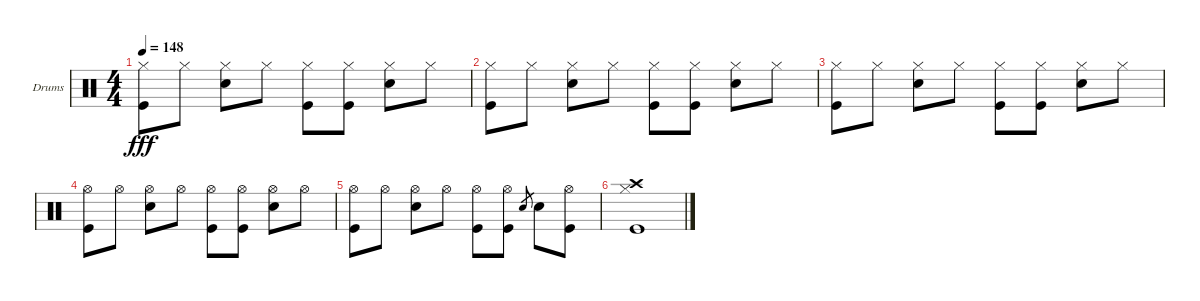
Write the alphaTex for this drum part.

\bracketExtendMode groupsimilarinstruments
\firstSystemTrackNameOrientation horizontal
\otherSystemsTrackNameOrientation horizontal
\track ("James Kottak" "Drums") {instrument percussion}
\staff {score}
\articulation defaults
\ts (4 4)
\tempo 148
\clef neutral
\ks c
("Hi-Hat (closed)" "Kick (hit)").8{dy fff} "Hi-Hat (closed)".8 ("Hi-Hat (closed)" "Snare (hit) 2").8 "Hi-Hat (closed)".8 ("Hi-Hat (closed)" "Kick (hit)").8 ("Hi-Hat (closed)" "Kick (hit)").8 ("Hi-Hat (closed)" "Snare (hit) 2").8 "Hi-Hat (closed)".8 |
("Hi-Hat (closed)" "Kick (hit)").8 "Hi-Hat (closed)".8 ("Hi-Hat (closed)" "Snare (hit) 2").8 "Hi-Hat (closed)".8 ("Hi-Hat (closed)" "Kick (hit)").8 ("Hi-Hat (closed)" "Kick (hit)").8 ("Hi-Hat (closed)" "Snare (hit) 2").8 "Hi-Hat (closed)".8 |
("Hi-Hat (closed)" "Kick (hit)").8 "Hi-Hat (closed)".8 ("Hi-Hat (closed)" "Snare (hit) 2").8 "Hi-Hat (closed)".8 ("Hi-Hat (closed)" "Kick (hit)").8 ("Hi-Hat (closed)" "Kick (hit)").8 ("Hi-Hat (closed)" "Snare (hit) 2").8 "Hi-Hat (closed)".8 |
("Hi-Hat (open)" "Kick (hit)").8 "Hi-Hat (open)".8 ("Hi-Hat (open)" "Snare (hit) 2").8 "Hi-Hat (open)".8 ("Hi-Hat (open)" "Kick (hit)").8 ("Hi-Hat (open)" "Kick (hit)").8 ("Hi-Hat (open)" "Snare (hit) 2").8 "Hi-Hat (open)".8 |
("Hi-Hat (open)" "Kick (hit)").8 "Hi-Hat (open)".8 ("Hi-Hat (open)" "Snare (hit) 2").8 "Hi-Hat (open)".8 ("Hi-Hat (open)" "Kick (hit)").8 ("Hi-Hat (open)" "Kick (hit)").8 "Snare (hit) 2".8{gr} "Snare (hit) 2".8 ("Kick (hit)" "Hi-Hat (open)").8 |
("Kick (hit)" "Hi-Hat (closed)" "Crash high (hit)").1
